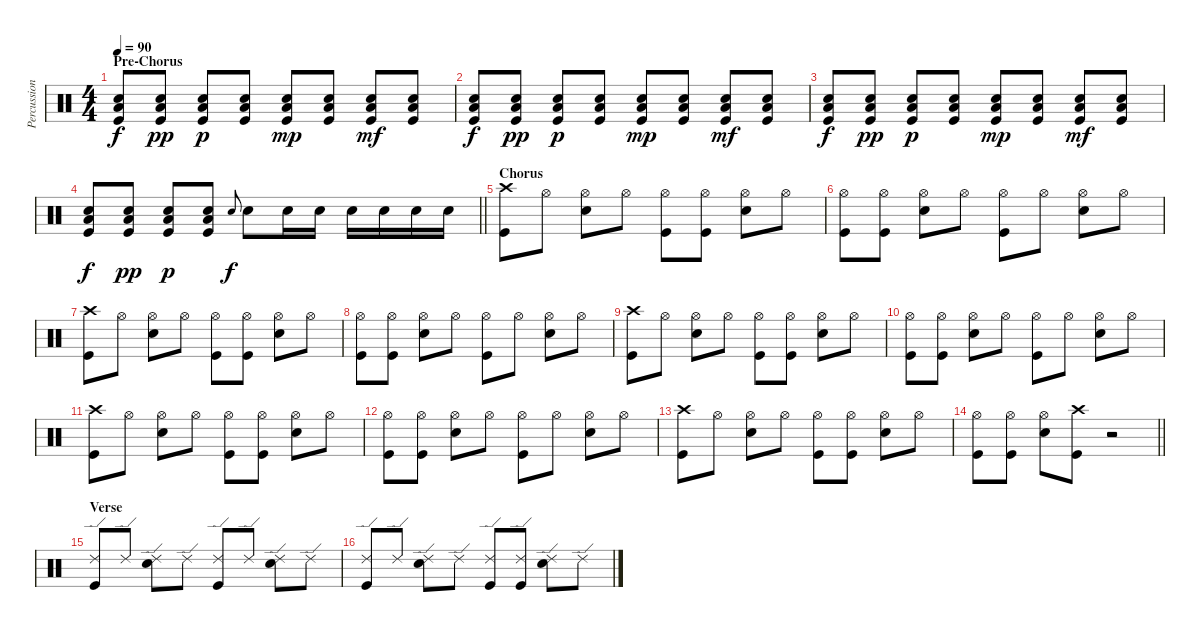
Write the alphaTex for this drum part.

\track ("Percussion" "Percussion") {instrument percussion}
\staff {score}
\articulation defaults
\ts (4 4)
\section ("" "Pre-Chorus")
\tempo 90
\clef neutral
\ks c
("Snare (hit) 2" "Low Floor Tom (hit)" "Kick (hit)").8{dy f} ("Snare (hit) 2" "Low Floor Tom (hit)" "Kick (hit)").8{dy pp} ("Snare (hit) 2" "Low Floor Tom (hit)" "Kick (hit)").8{dy p} ("Snare (hit) 2" "Low Floor Tom (hit)" "Kick (hit)").8 ("Snare (hit) 2" "Low Floor Tom (hit)" "Kick (hit)").8{dy mp} ("Snare (hit) 2" "Low Floor Tom (hit)" "Kick (hit)").8 ("Snare (hit) 2" "Low Floor Tom (hit)" "Kick (hit)").8{dy mf} ("Snare (hit) 2" "Low Floor Tom (hit)" "Kick (hit)").8 |
("Snare (hit) 2" "Low Floor Tom (hit)" "Kick (hit)").8{dy f} ("Snare (hit) 2" "Low Floor Tom (hit)" "Kick (hit)").8{dy pp} ("Snare (hit) 2" "Low Floor Tom (hit)" "Kick (hit)").8{dy p} ("Snare (hit) 2" "Low Floor Tom (hit)" "Kick (hit)").8 ("Snare (hit) 2" "Low Floor Tom (hit)" "Kick (hit)").8{dy mp} ("Snare (hit) 2" "Low Floor Tom (hit)" "Kick (hit)").8 ("Snare (hit) 2" "Low Floor Tom (hit)" "Kick (hit)").8{dy mf} ("Snare (hit) 2" "Low Floor Tom (hit)" "Kick (hit)").8 |
("Snare (hit) 2" "Low Floor Tom (hit)" "Kick (hit)").8{dy f} ("Snare (hit) 2" "Low Floor Tom (hit)" "Kick (hit)").8{dy pp} ("Snare (hit) 2" "Low Floor Tom (hit)" "Kick (hit)").8{dy p} ("Snare (hit) 2" "Low Floor Tom (hit)" "Kick (hit)").8 ("Snare (hit) 2" "Low Floor Tom (hit)" "Kick (hit)").8{dy mp} ("Snare (hit) 2" "Low Floor Tom (hit)" "Kick (hit)").8 ("Snare (hit) 2" "Low Floor Tom (hit)" "Kick (hit)").8{dy mf} ("Snare (hit) 2" "Low Floor Tom (hit)" "Kick (hit)").8 |
\barLineRight lightlight
("Snare (hit) 2" "Low Floor Tom (hit)" "Kick (hit)").8{dy f} ("Snare (hit) 2" "Low Floor Tom (hit)" "Kick (hit)").8{dy pp} ("Snare (hit) 2" "Low Floor Tom (hit)" "Kick (hit)").8{dy p} ("Snare (hit) 2" "Low Floor Tom (hit)" "Kick (hit)").8 "Snare (hit) 2".8{gr onbeat dy f} "Snare (hit) 2".8 "Snare (hit) 2".16 "Snare (hit) 2".16 "Snare (hit) 2".16 "Snare (hit) 2".16 "Snare (hit) 2".16 "Snare (hit) 2".16 |
\section ("" "Chorus")
("Crash high (hit)" "Kick (hit)").8 "Hi-Hat (open)".8 ("Hi-Hat (open)" "Snare (hit) 2").8 "Hi-Hat (open)".8 ("Hi-Hat (open)" "Kick (hit)").8 ("Hi-Hat (open)" "Kick (hit)").8 ("Hi-Hat (open)" "Snare (hit) 2").8 "Hi-Hat (open)".8 |
("Hi-Hat (open)" "Kick (hit)").8 ("Hi-Hat (open)" "Kick (hit)").8 ("Hi-Hat (open)" "Snare (hit) 2").8 "Hi-Hat (open)".8 ("Hi-Hat (open)" "Kick (hit)").8 "Hi-Hat (open)".8 ("Hi-Hat (open)" "Snare (hit) 2").8 "Hi-Hat (open)".8 |
("Crash high (hit)" "Kick (hit)").8 "Hi-Hat (open)".8 ("Hi-Hat (open)" "Snare (hit) 2").8 "Hi-Hat (open)".8 ("Hi-Hat (open)" "Kick (hit)").8 ("Hi-Hat (open)" "Kick (hit)").8 ("Hi-Hat (open)" "Snare (hit) 2").8 "Hi-Hat (open)".8 |
("Hi-Hat (open)" "Kick (hit)").8 ("Hi-Hat (open)" "Kick (hit)").8 ("Hi-Hat (open)" "Snare (hit) 2").8 "Hi-Hat (open)".8 ("Hi-Hat (open)" "Kick (hit)").8 "Hi-Hat (open)".8 ("Hi-Hat (open)" "Snare (hit) 2").8 "Hi-Hat (open)".8 |
("Crash high (hit)" "Kick (hit)").8 "Hi-Hat (open)".8 ("Hi-Hat (open)" "Snare (hit) 2").8 "Hi-Hat (open)".8 ("Hi-Hat (open)" "Kick (hit)").8 ("Hi-Hat (open)" "Kick (hit)").8 ("Hi-Hat (open)" "Snare (hit) 2").8 "Hi-Hat (open)".8 |
("Hi-Hat (open)" "Kick (hit)").8 ("Hi-Hat (open)" "Kick (hit)").8 ("Hi-Hat (open)" "Snare (hit) 2").8 "Hi-Hat (open)".8 ("Hi-Hat (open)" "Kick (hit)").8 "Hi-Hat (open)".8 ("Hi-Hat (open)" "Snare (hit) 2").8 "Hi-Hat (open)".8 |
("Crash high (hit)" "Kick (hit)").8 "Hi-Hat (open)".8 ("Hi-Hat (open)" "Snare (hit) 2").8 "Hi-Hat (open)".8 ("Hi-Hat (open)" "Kick (hit)").8 ("Hi-Hat (open)" "Kick (hit)").8 ("Hi-Hat (open)" "Snare (hit) 2").8 "Hi-Hat (open)".8 |
("Hi-Hat (open)" "Kick (hit)").8 ("Hi-Hat (open)" "Kick (hit)").8 ("Hi-Hat (open)" "Snare (hit) 2").8 "Hi-Hat (open)".8 ("Hi-Hat (open)" "Kick (hit)").8 "Hi-Hat (open)".8 ("Hi-Hat (open)" "Snare (hit) 2").8 "Hi-Hat (open)".8 |
("Crash high (hit)" "Kick (hit)").8 "Hi-Hat (open)".8 ("Hi-Hat (open)" "Snare (hit) 2").8 "Hi-Hat (open)".8 ("Hi-Hat (open)" "Kick (hit)").8 ("Hi-Hat (open)" "Kick (hit)").8 ("Hi-Hat (open)" "Snare (hit) 2").8 "Hi-Hat (open)".8 |
\barLineRight lightlight
("Hi-Hat (open)" "Kick (hit)").8 ("Hi-Hat (open)" "Kick (hit)").8 ("Hi-Hat (open)" "Snare (hit) 2").8 ("Crash high (hit)" "Kick (hit)").8 r.2 |
\section ("" "Verse")
("Ride (edge) 2" "Kick (hit)").8 "Ride (edge) 2".8 ("Ride (edge) 2" "Snare (hit) 2").8 "Ride (edge) 2".8 ("Ride (edge) 2" "Kick (hit)").8 "Ride (edge) 2".8 ("Ride (edge) 2" "Snare (hit) 2").8 "Ride (edge) 2".8 |
("Ride (edge) 2" "Kick (hit)").8 "Ride (edge) 2".8 ("Ride (edge) 2" "Snare (hit) 2").8 "Ride (edge) 2".8 ("Ride (edge) 2" "Kick (hit)").8 ("Ride (edge) 2" "Kick (hit)").8 ("Ride (edge) 2" "Snare (hit) 2").8 "Ride (edge) 2".8
